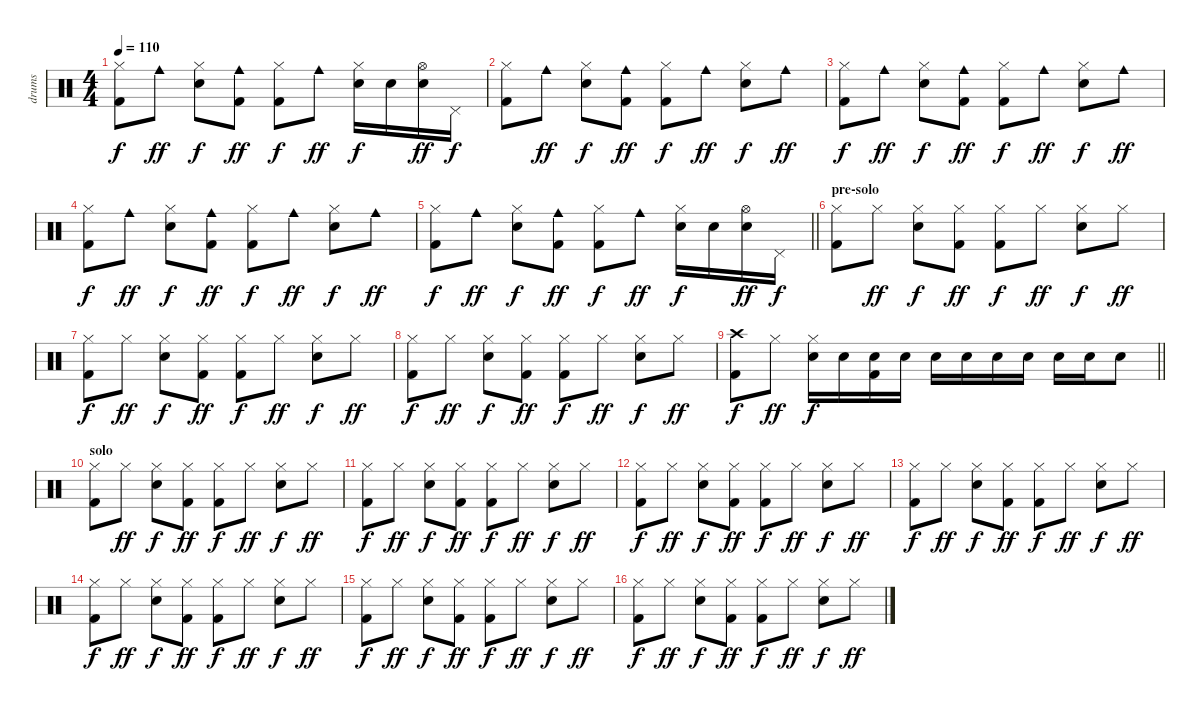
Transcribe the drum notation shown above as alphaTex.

\track ("drums" "drums") {instrument percussion}
\staff {score}
\articulation defaults
\ts (4 4)
\tempo 110
\clef neutral
\ks aminor
("Hi-Hat (closed)" "Kick (hit) 2").8{dy f} "Cowbell medium (hit)".8{dy ff} ("Hi-Hat (closed)" "Snare (hit) 2").8{dy f} ("Cowbell medium (hit)" "Kick (hit) 2").8{dy ff} ("Hi-Hat (closed)" "Kick (hit) 2").8{dy f} "Cowbell medium (hit)".8{dy ff} ("Hi-Hat (closed)" "Snare (hit) 2").16{dy f} "Snare (hit) 2".16 ("Hi-Hat (open)" "Snare (hit) 2").16{dy ff} "Pedal Hi-Hat (hit)".16{dy f} |
("Hi-Hat (closed)" "Kick (hit) 2").8 "Cowbell medium (hit)".8{dy ff} ("Hi-Hat (closed)" "Snare (hit) 2").8{dy f} ("Cowbell medium (hit)" "Kick (hit) 2").8{dy ff} ("Hi-Hat (closed)" "Kick (hit) 2").8{dy f} "Cowbell medium (hit)".8{dy ff} ("Hi-Hat (closed)" "Snare (hit) 2").8{dy f} "Cowbell medium (hit)".8{dy ff} |
("Hi-Hat (closed)" "Kick (hit) 2").8{dy f} "Cowbell medium (hit)".8{dy ff} ("Hi-Hat (closed)" "Snare (hit) 2").8{dy f} ("Cowbell medium (hit)" "Kick (hit) 2").8{dy ff} ("Hi-Hat (closed)" "Kick (hit) 2").8{dy f} "Cowbell medium (hit)".8{dy ff} ("Hi-Hat (closed)" "Snare (hit) 2").8{dy f} "Cowbell medium (hit)".8{dy ff} |
("Hi-Hat (closed)" "Kick (hit) 2").8{dy f} "Cowbell medium (hit)".8{dy ff} ("Hi-Hat (closed)" "Snare (hit) 2").8{dy f} ("Cowbell medium (hit)" "Kick (hit) 2").8{dy ff} ("Hi-Hat (closed)" "Kick (hit) 2").8{dy f} "Cowbell medium (hit)".8{dy ff} ("Hi-Hat (closed)" "Snare (hit) 2").8{dy f} "Cowbell medium (hit)".8{dy ff} |
\barLineRight lightlight
("Hi-Hat (closed)" "Kick (hit) 2").8{dy f} "Cowbell medium (hit)".8{dy ff} ("Hi-Hat (closed)" "Snare (hit) 2").8{dy f} ("Cowbell medium (hit)" "Kick (hit) 2").8{dy ff} ("Hi-Hat (closed)" "Kick (hit) 2").8{dy f} "Cowbell medium (hit)".8{dy ff} ("Hi-Hat (closed)" "Snare (hit) 2").16{dy f} "Snare (hit) 2".16 ("Hi-Hat (open)" "Snare (hit) 2").16{dy ff} "Pedal Hi-Hat (hit)".16{dy f} |
\section ("" "pre-solo")
("Hi-Hat (closed)" "Kick (hit) 2").8 "Hi-Hat (closed)".8{dy ff} ("Hi-Hat (closed)" "Snare (hit) 2").8{dy f} ("Hi-Hat (closed)" "Kick (hit) 2").8{dy ff} ("Hi-Hat (closed)" "Kick (hit) 2").8{dy f} "Hi-Hat (closed)".8{dy ff} ("Hi-Hat (closed)" "Snare (hit) 2").8{dy f} "Hi-Hat (closed)".8{dy ff} |
("Hi-Hat (closed)" "Kick (hit) 2").8{dy f} "Hi-Hat (closed)".8{dy ff} ("Hi-Hat (closed)" "Snare (hit) 2").8{dy f} ("Hi-Hat (closed)" "Kick (hit) 2").8{dy ff} ("Hi-Hat (closed)" "Kick (hit) 2").8{dy f} "Hi-Hat (closed)".8{dy ff} ("Hi-Hat (closed)" "Snare (hit) 2").8{dy f} "Hi-Hat (closed)".8{dy ff} |
("Hi-Hat (closed)" "Kick (hit) 2").8{dy f} "Hi-Hat (closed)".8{dy ff} ("Hi-Hat (closed)" "Snare (hit) 2").8{dy f} ("Hi-Hat (closed)" "Kick (hit) 2").8{dy ff} ("Hi-Hat (closed)" "Kick (hit) 2").8{dy f} "Hi-Hat (closed)".8{dy ff} ("Hi-Hat (closed)" "Snare (hit) 2").8{dy f} "Hi-Hat (closed)".8{dy ff} |
\barLineRight lightlight
("Crash high (hit)" "Kick (hit) 2").8{dy f} "Hi-Hat (closed)".8{dy ff} ("Hi-Hat (closed)" "Snare (hit) 2").16{dy f} "Snare (hit) 2".16 ("Snare (hit) 2" "Kick (hit) 2").16 "Snare (hit) 2".16 "Snare (hit) 2".16 "Snare (hit) 2".16 "Snare (hit) 2".16 "Snare (hit) 2".16 "Snare (hit) 2".16 "Snare (hit) 2".16 "Snare (hit) 2".8 |
\section ("" "solo")
("Hi-Hat (closed)" "Kick (hit) 2").8 "Hi-Hat (closed)".8{dy ff} ("Hi-Hat (closed)" "Snare (hit) 2").8{dy f} ("Hi-Hat (closed)" "Kick (hit) 2").8{dy ff} ("Hi-Hat (closed)" "Kick (hit) 2").8{dy f} "Hi-Hat (closed)".8{dy ff} ("Hi-Hat (closed)" "Snare (hit) 2").8{dy f} "Hi-Hat (closed)".8{dy ff} |
("Hi-Hat (closed)" "Kick (hit) 2").8{dy f} "Hi-Hat (closed)".8{dy ff} ("Hi-Hat (closed)" "Snare (hit) 2").8{dy f} ("Hi-Hat (closed)" "Kick (hit) 2").8{dy ff} ("Hi-Hat (closed)" "Kick (hit) 2").8{dy f} "Hi-Hat (closed)".8{dy ff} ("Hi-Hat (closed)" "Snare (hit) 2").8{dy f} "Hi-Hat (closed)".8{dy ff} |
("Hi-Hat (closed)" "Kick (hit) 2").8{dy f} "Hi-Hat (closed)".8{dy ff} ("Hi-Hat (closed)" "Snare (hit) 2").8{dy f} ("Hi-Hat (closed)" "Kick (hit) 2").8{dy ff} ("Hi-Hat (closed)" "Kick (hit) 2").8{dy f} "Hi-Hat (closed)".8{dy ff} ("Hi-Hat (closed)" "Snare (hit) 2").8{dy f} "Hi-Hat (closed)".8{dy ff} |
("Hi-Hat (closed)" "Kick (hit) 2").8{dy f} "Hi-Hat (closed)".8{dy ff} ("Hi-Hat (closed)" "Snare (hit) 2").8{dy f} ("Hi-Hat (closed)" "Kick (hit) 2").8{dy ff} ("Hi-Hat (closed)" "Kick (hit) 2").8{dy f} "Hi-Hat (closed)".8{dy ff} ("Hi-Hat (closed)" "Snare (hit) 2").8{dy f} "Hi-Hat (closed)".8{dy ff} |
("Hi-Hat (closed)" "Kick (hit) 2").8{dy f} "Hi-Hat (closed)".8{dy ff} ("Hi-Hat (closed)" "Snare (hit) 2").8{dy f} ("Hi-Hat (closed)" "Kick (hit) 2").8{dy ff} ("Hi-Hat (closed)" "Kick (hit) 2").8{dy f} "Hi-Hat (closed)".8{dy ff} ("Hi-Hat (closed)" "Snare (hit) 2").8{dy f} "Hi-Hat (closed)".8{dy ff} |
("Hi-Hat (closed)" "Kick (hit) 2").8{dy f} "Hi-Hat (closed)".8{dy ff} ("Hi-Hat (closed)" "Snare (hit) 2").8{dy f} ("Hi-Hat (closed)" "Kick (hit) 2").8{dy ff} ("Hi-Hat (closed)" "Kick (hit) 2").8{dy f} "Hi-Hat (closed)".8{dy ff} ("Hi-Hat (closed)" "Snare (hit) 2").8{dy f} "Hi-Hat (closed)".8{dy ff} |
("Hi-Hat (closed)" "Kick (hit) 2").8{dy f} "Hi-Hat (closed)".8{dy ff} ("Hi-Hat (closed)" "Snare (hit) 2").8{dy f} ("Hi-Hat (closed)" "Kick (hit) 2").8{dy ff} ("Hi-Hat (closed)" "Kick (hit) 2").8{dy f} "Hi-Hat (closed)".8{dy ff} ("Hi-Hat (closed)" "Snare (hit) 2").8{dy f} "Hi-Hat (closed)".8{dy ff}
